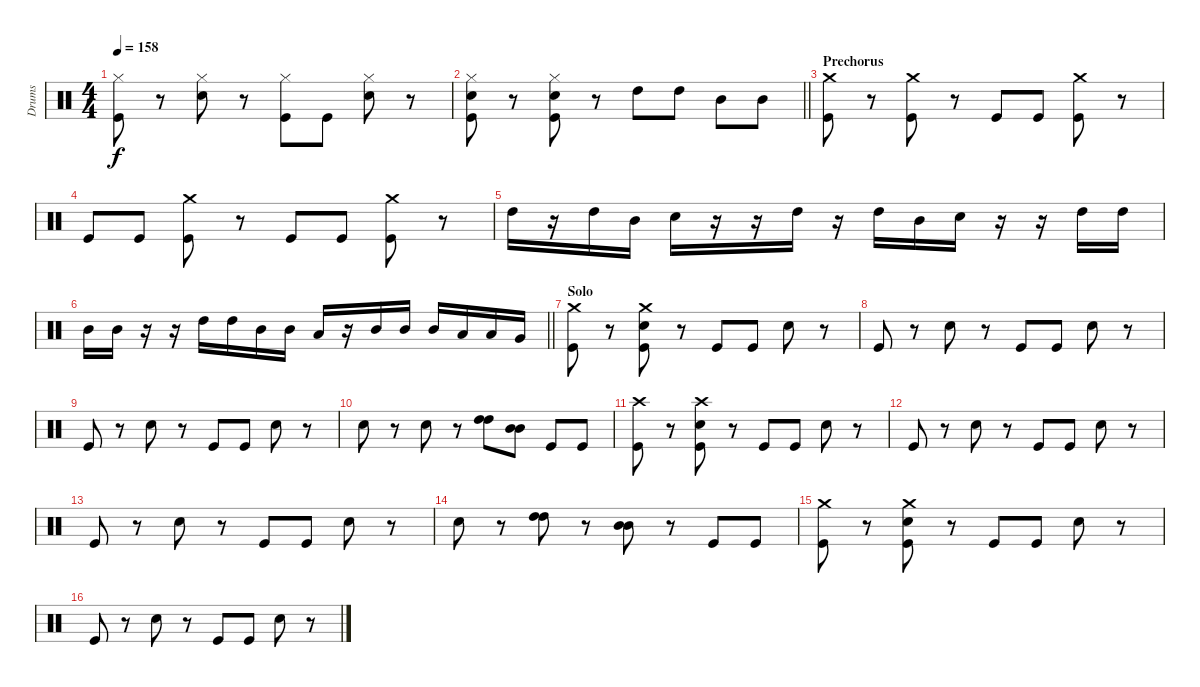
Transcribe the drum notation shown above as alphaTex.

\track ("Drums" "Drums") {instrument percussion}
\staff {score}
\articulation defaults
\ts (4 4)
\tempo 158
\clef neutral
\ks c
("Hi-Hat (closed)" "Kick (hit)").8{dy f} r.8 ("Hi-Hat (closed)" "Snare (hit) 2").8 r.8 ("Hi-Hat (closed)" "Kick (hit)").8 "Kick (hit)".8 ("Hi-Hat (closed)" "Snare (hit) 2").8 r.8 |
\barLineRight lightlight
("Hi-Hat (closed)" "Snare (hit) 2" "Kick (hit)").8 r.8 ("Hi-Hat (closed)" "Snare (hit) 2" "Kick (hit)").8 r.8 "High Tom (hit)".8 "High Tom (hit)".8 "Mid Tom (hit)".8 "Mid Tom (hit)".8 |
\section ("" "Prechorus")
("Crash medium (hit)" "Kick (hit)").8 r.8 ("Crash medium (hit)" "Kick (hit)").8 r.8 "Kick (hit)".8 "Kick (hit)".8 ("Crash medium (hit)" "Kick (hit)").8 r.8 |
"Kick (hit)".8 "Kick (hit)".8 ("Crash medium (hit)" "Kick (hit)").8 r.8 "Kick (hit)".8 "Kick (hit)".8 ("Crash medium (hit)" "Kick (hit)").8 r.8 |
"High Tom (hit)".16 r.16 "High Tom (hit)".16 "Mid Tom (hit)".16 "Snare (hit) 2".16 r.16 r.16 "High Tom (hit)".16 r.16 "High Tom (hit)".16 "Mid Tom (hit)".16 "Snare (hit) 2".16 r.16 r.16 "High Tom (hit)".16 "High Tom (hit)".16 |
\barLineRight lightlight "Mid Tom (hit)".16 "Mid Tom (hit)".16
r.16 r.16 "High Tom (hit)".16 "High Tom (hit)".16 "Mid Tom (hit)".16 "Mid Tom (hit)".16 "Low Tom (hit)".16 r.16 "Mid Tom (hit)".16 "Mid Tom (hit)".16 "Mid Tom (hit)".16 "Low Tom (hit)".16 "Low Tom (hit)".16 "Very Low Tom (hit)".16 |
\section ("" "Solo")
("Crash medium (hit)" "Kick (hit)").8 r.8 ("Crash medium (hit)" "Snare (hit) 2" "Kick (hit)").8 r.8 "Kick (hit)".8 "Kick (hit)".8 "Snare (hit) 2".8 r.8 |
"Kick (hit)".8 r.8 "Snare (hit) 2".8 r.8 "Kick (hit)".8 "Kick (hit)".8 "Snare (hit) 2".8 r.8 |
"Kick (hit)".8 r.8 "Snare (hit) 2".8 r.8 "Kick (hit)".8 "Kick (hit)".8 "Snare (hit) 2".8 r.8 |
"Snare (hit) 2".8 r.8 "Snare (hit) 2".8 r.8 ("High Tom (hit)" "High Tom (hit)").8 ("Mid Tom (hit)" "Mid Tom (hit)").8 "Kick (hit)".8 "Kick (hit)".8 |
("Crash high (hit)" "Kick (hit)").8 r.8 ("Crash high (hit)" "Snare (hit) 2" "Kick (hit)").8 r.8 "Kick (hit)".8 "Kick (hit)".8 "Snare (hit) 2".8 r.8 |
"Kick (hit)".8 r.8 "Snare (hit) 2".8 r.8 "Kick (hit)".8 "Kick (hit)".8 "Snare (hit) 2".8 r.8 |
"Kick (hit)".8 r.8 "Snare (hit) 2".8 r.8 "Kick (hit)".8 "Kick (hit)".8 "Snare (hit) 2".8 r.8 |
"Snare (hit) 2".8 r.8 ("High Tom (hit)" "High Tom (hit)").8 r.8 ("Mid Tom (hit)" "Mid Tom (hit)").8 r.8 "Kick (hit)".8 "Kick (hit)".8 |
("Crash medium (hit)" "Kick (hit)").8 r.8 ("Crash medium (hit)" "Snare (hit) 2" "Kick (hit)").8 r.8 "Kick (hit)".8 "Kick (hit)".8 "Snare (hit) 2".8 r.8 |
"Kick (hit)".8 r.8 "Snare (hit) 2".8 r.8 "Kick (hit)".8 "Kick (hit)".8 "Snare (hit) 2".8 r.8
